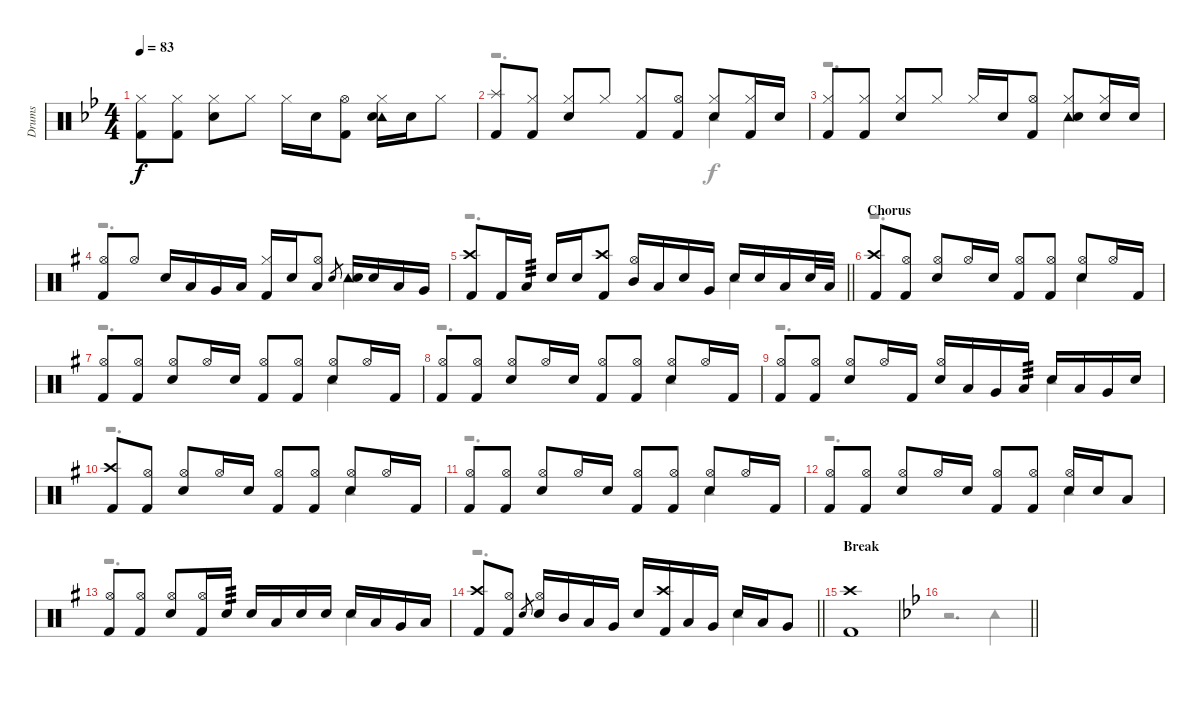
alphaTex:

\track ("Drums" "Drums") {instrument percussion}
\staff {score}
\articulation defaults
\voice
\ts (4 4)
\tempo 83
\clef neutral
\ks bb
("Hi-Hat (closed)" "Kick (hit) 2").8{dy f} ("Hi-Hat (closed)" "Kick (hit) 2").8 ("Hi-Hat (closed)" "Electric Snare (hit)").8 "Hi-Hat (closed)".8 "Hi-Hat (closed)".16 "Electric Snare (hit)".16 ("Hi-Hat (open)" "Kick (hit) 2").8 ("Hi-Hat (closed)" "Tambourine (hit)" "Electric Snare (hit)").16 "Electric Snare (hit)".16 "Hi-Hat (closed)".8 |
("Splash (hit)" "Kick (hit) 2").8 ("Hi-Hat (closed)" "Kick (hit) 2").8 ("Hi-Hat (closed)" "Electric Snare (hit)").8 "Hi-Hat (closed)".8 ("Hi-Hat (closed)" "Kick (hit) 2").8 ("Hi-Hat (open)" "Kick (hit) 2").8 ("Hi-Hat (closed)" "Electric Snare (hit)").8 ("Hi-Hat (closed)" "Kick (hit) 2").16 "Electric Snare (hit)".16 |
("Hi-Hat (closed)" "Kick (hit) 2").8 ("Hi-Hat (closed)" "Kick (hit) 2").8 ("Hi-Hat (closed)" "Electric Snare (hit)").8 "Hi-Hat (closed)".8 "Hi-Hat (closed)".16 "Electric Snare (hit)".16 ("Hi-Hat (open)" "Kick (hit) 2").8 ("Hi-Hat (closed)" "Tambourine (hit)" "Electric Snare (hit)").8 ("Hi-Hat (closed)" "Electric Snare (hit)").16 "Electric Snare (hit)".16 |
\ks g
("Hi-Hat (open)" "Kick (hit) 2").8 "Hi-Hat (open)".8 "Electric Snare (hit)".16 "Low Tom (hit)".16 "Very Low Tom (hit)".16 "Low Floor Tom (hit)".16 ("Hi-Hat (closed)" "Kick (hit) 2").16 "Electric Snare (hit)".16 ("Hi-Hat (open)" "Low Tom (hit)").8 "Electric Snare (hit)".8{gr} ("Tambourine (hit)" "Electric Snare (hit)").16 "Electric Snare (hit)".16 "Low Tom (hit)".16 "Very Low Tom (hit)".16 |
\barLineRight lightlight
("Crash high (hit)" "Kick (hit) 2").8 "Kick (hit) 2".16 "Low Tom (hit)".16{tp 3} "Electric Snare (hit)".16 "Electric Snare (hit)".16 ("Crash high (hit)" "Kick (hit) 2").8 ("Hi-Hat (open)" "Mid Tom (hit)").16 "Low Tom (hit)".16 "Electric Snare (hit)".16 "Very Low Tom (hit)".16 "Electric Snare (hit)".16 "Electric Snare (hit)".16 "Low Tom (hit)".16 "Electric Snare (hit)".32 "Low Tom (hit)".32 |
\section ("" "Chorus")
("Crash high (hit)" "Kick (hit) 2").8 ("Hi-Hat (open)" "Kick (hit) 2").8 ("Hi-Hat (open)" "Electric Snare (hit)").8 "Hi-Hat (open)".16 "Electric Snare (hit)".16 ("Hi-Hat (open)" "Kick (hit) 2").8 ("Hi-Hat (open)" "Kick (hit) 2").8 ("Hi-Hat (open)" "Electric Snare (hit)").8 "Hi-Hat (open)".16 "Kick (hit) 2".16 |
("Hi-Hat (open)" "Kick (hit) 2").8 ("Hi-Hat (open)" "Kick (hit) 2").8 ("Hi-Hat (open)" "Electric Snare (hit)").8 "Hi-Hat (open)".16 "Electric Snare (hit)".16 ("Hi-Hat (open)" "Kick (hit) 2").8 ("Hi-Hat (open)" "Kick (hit) 2").8 ("Hi-Hat (open)" "Electric Snare (hit)").8 "Hi-Hat (open)".16 "Kick (hit) 2".16 |
("Hi-Hat (open)" "Kick (hit) 2").8 ("Hi-Hat (open)" "Kick (hit) 2").8 ("Hi-Hat (open)" "Electric Snare (hit)").8 "Hi-Hat (open)".16 "Electric Snare (hit)".16 ("Hi-Hat (open)" "Kick (hit) 2").8 ("Hi-Hat (open)" "Kick (hit) 2").8 ("Hi-Hat (open)" "Electric Snare (hit)").8 "Hi-Hat (open)".16 "Kick (hit) 2".16 |
("Hi-Hat (open)" "Kick (hit) 2").8 ("Hi-Hat (open)" "Kick (hit) 2").8 ("Hi-Hat (open)" "Electric Snare (hit)").8 "Hi-Hat (open)".16 "Kick (hit) 2".16 ("Hi-Hat (open)" "Electric Snare (hit)").16 "Low Tom (hit)".16 "Very Low Tom (hit)".16 "Low Floor Tom (hit)".16{tp 3} "Electric Snare (hit)".16 "Low Tom (hit)".16 "Very Low Tom (hit)".16 "Electric Snare (hit)".16 |
("Crash high (hit)" "Kick (hit) 2").8 ("Hi-Hat (open)" "Kick (hit) 2").8 ("Hi-Hat (open)" "Electric Snare (hit)").8 "Hi-Hat (open)".16 "Electric Snare (hit)".16 ("Hi-Hat (open)" "Kick (hit) 2").8 ("Hi-Hat (open)" "Kick (hit) 2").8 ("Hi-Hat (open)" "Electric Snare (hit)").8 "Hi-Hat (open)".16 "Kick (hit) 2".16 |
("Hi-Hat (open)" "Kick (hit) 2").8 ("Hi-Hat (open)" "Kick (hit) 2").8 ("Hi-Hat (open)" "Electric Snare (hit)").8 "Hi-Hat (open)".16 "Electric Snare (hit)".16 ("Hi-Hat (open)" "Kick (hit) 2").8 ("Hi-Hat (open)" "Kick (hit) 2").8 ("Hi-Hat (open)" "Electric Snare (hit)").8 "Hi-Hat (open)".16 "Kick (hit) 2".16 |
("Hi-Hat (open)" "Kick (hit) 2").8 ("Hi-Hat (open)" "Kick (hit) 2").8 ("Hi-Hat (open)" "Electric Snare (hit)").8 "Hi-Hat (open)".16 "Electric Snare (hit)".16 ("Hi-Hat (open)" "Kick (hit) 2").8 ("Hi-Hat (open)" "Kick (hit) 2").8 ("Hi-Hat (open)" "Electric Snare (hit)").16 "Electric Snare (hit)".16 "Low Tom (hit)".8 |
("Hi-Hat (open)" "Kick (hit) 2").8 ("Hi-Hat (open)" "Kick (hit) 2").8 ("Hi-Hat (open)" "Electric Snare (hit)").8 ("Hi-Hat (open)" "Kick (hit) 2").16 "Electric Snare (hit)".16{tp 3} "Electric Snare (hit)".16 "Low Tom (hit)".16 "Electric Snare (hit)".16 "Electric Snare (hit)".16 "Electric Snare (hit)".16 "Low Tom (hit)".16 "Very Low Tom (hit)".16 "Low Floor Tom (hit)".16 |
\barLineRight lightlight
("Crash high (hit)" "Kick (hit) 2").8 ("Hi-Hat (open)" "Kick (hit) 2").8 "Electric Snare (hit)".8{gr} ("Hi-Hat (open)" "Electric Snare (hit)").16 "Mid Tom (hit)".16 "Low Tom (hit)".16 "Very Low Tom (hit)".16 "Electric Snare (hit)".16 ("Crash high (hit)" "Kick (hit) 2").16 "Low Tom (hit)".16 "Very Low Tom (hit)".16 "Electric Snare (hit)".16 "Low Tom (hit)".16 "Very Low Tom (hit)".8 |
\section ("" "Break")
("Crash high (hit)" "Kick (hit) 2").1 |
\barLineRight lightlight
\voice
\clef neutral
\ottava regular
\simile none
\ks bb
r.2{d dy f} "Tambourine (hit)".4 |
r.2{d} "Tambourine (hit)".4 |
r.2{d} "Tambourine (hit)".4 |
\ks g
r.2{d} "Tambourine (hit)".4 |
\barLineRight lightlight
r.2{d} "Tambourine (hit)".4 |
r.2{d} "Tambourine (hit)".4 |
r.2{d} "Tambourine (hit)".4 |
r.2{d} "Tambourine (hit)".4 |
r.2{d} "Tambourine (hit)".4 |
r.2{d} "Tambourine (hit)".4 |
r.2{d} "Tambourine (hit)".4 |
r.2{d} "Tambourine (hit)".4 |
r.2{d} "Tambourine (hit)".4 |
\barLineRight lightlight
r.2{d} "Tambourine (hit)".4 |
|
\barLineRight lightlight
